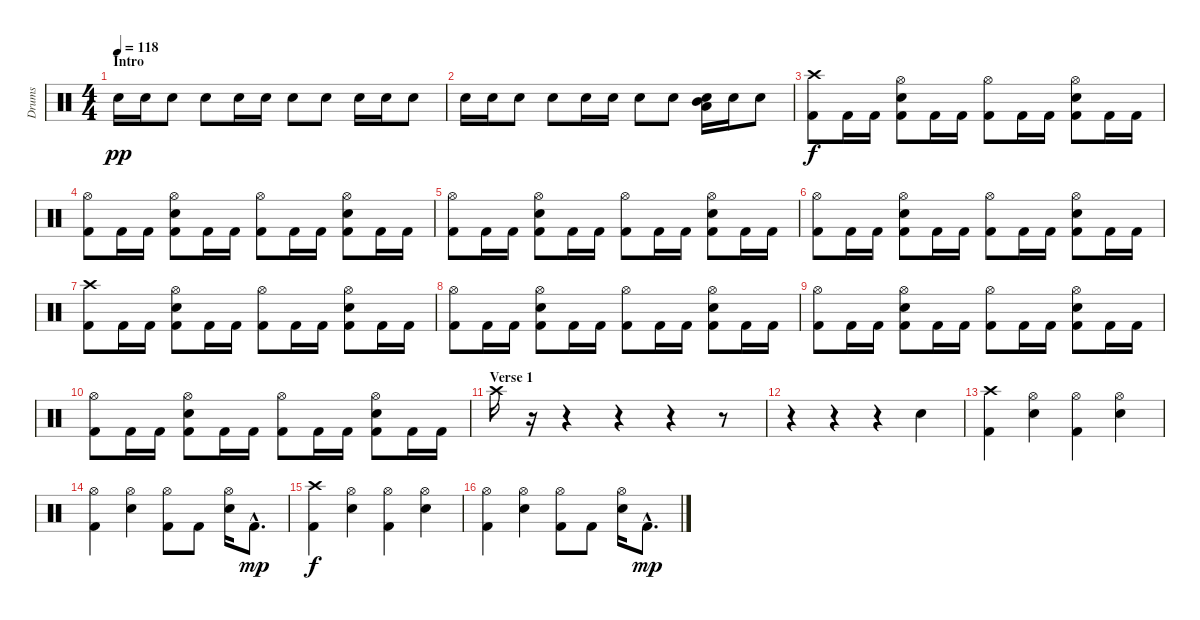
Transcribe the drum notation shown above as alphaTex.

\track ("Drums" "Drums") {instrument percussion}
\staff {score}
\articulation defaults
\ts (4 4)
\section ("" "Intro")
\tempo 118
\clef neutral
\ks c "Snare (hit) 2".16{dy pp} "Snare (hit) 2".16 "Snare (hit) 2".8 "Snare (hit) 2".8 "Snare (hit) 2".16 "Snare (hit) 2".16 "Snare (hit) 2".8 "Snare (hit) 2".8 "Snare (hit) 2".16 "Snare (hit) 2".16 "Snare (hit) 2".8
|
"Snare (hit) 2".16 "Snare (hit) 2".16 "Snare (hit) 2".8 "Snare (hit) 2".8 "Snare (hit) 2".16 "Snare (hit) 2".16 "Snare (hit) 2".8 "Snare (hit) 2".8 ("Mid Tom (hit)" "Low Tom (hit)" "Snare (hit) 2").16 "Snare (hit) 2".16 "Snare (hit) 2".8 |
("Crash high (hit)" "Kick (hit) 2").8{dy f} "Kick (hit) 2".16 "Kick (hit) 2".16 ("Hi-Hat (open)" "Snare (hit) 2" "Kick (hit) 2").8 "Kick (hit) 2".16 "Kick (hit) 2".16 ("Hi-Hat (open)" "Kick (hit) 2").8 "Kick (hit) 2".16 "Kick (hit) 2".16 ("Hi-Hat (open)" "Snare (hit) 2" "Kick (hit) 2").8 "Kick (hit) 2".16 "Kick (hit) 2".16 |
("Hi-Hat (open)" "Kick (hit) 2").8 "Kick (hit) 2".16 "Kick (hit) 2".16 ("Hi-Hat (open)" "Snare (hit) 2" "Kick (hit) 2").8 "Kick (hit) 2".16 "Kick (hit) 2".16 ("Hi-Hat (open)" "Kick (hit) 2").8 "Kick (hit) 2".16 "Kick (hit) 2".16 ("Hi-Hat (open)" "Snare (hit) 2" "Kick (hit) 2").8 "Kick (hit) 2".16 "Kick (hit) 2".16 |
("Hi-Hat (open)" "Kick (hit) 2").8 "Kick (hit) 2".16 "Kick (hit) 2".16 ("Hi-Hat (open)" "Snare (hit) 2" "Kick (hit) 2").8 "Kick (hit) 2".16 "Kick (hit) 2".16 ("Hi-Hat (open)" "Kick (hit) 2").8 "Kick (hit) 2".16 "Kick (hit) 2".16 ("Hi-Hat (open)" "Snare (hit) 2" "Kick (hit) 2").8 "Kick (hit) 2".16 "Kick (hit) 2".16 |
("Hi-Hat (open)" "Kick (hit) 2").8 "Kick (hit) 2".16 "Kick (hit) 2".16 ("Hi-Hat (open)" "Snare (hit) 2" "Kick (hit) 2").8 "Kick (hit) 2".16 "Kick (hit) 2".16 ("Hi-Hat (open)" "Kick (hit) 2").8 "Kick (hit) 2".16 "Kick (hit) 2".16 ("Hi-Hat (open)" "Snare (hit) 2" "Kick (hit) 2").8 "Kick (hit) 2".16 "Kick (hit) 2".16 |
("Crash high (hit)" "Kick (hit) 2").8 "Kick (hit) 2".16 "Kick (hit) 2".16 ("Hi-Hat (open)" "Snare (hit) 2" "Kick (hit) 2").8 "Kick (hit) 2".16 "Kick (hit) 2".16 ("Hi-Hat (open)" "Kick (hit) 2").8 "Kick (hit) 2".16 "Kick (hit) 2".16 ("Hi-Hat (open)" "Snare (hit) 2" "Kick (hit) 2").8 "Kick (hit) 2".16 "Kick (hit) 2".16 |
("Hi-Hat (open)" "Kick (hit) 2").8 "Kick (hit) 2".16 "Kick (hit) 2".16 ("Hi-Hat (open)" "Snare (hit) 2" "Kick (hit) 2").8 "Kick (hit) 2".16 "Kick (hit) 2".16 ("Hi-Hat (open)" "Kick (hit) 2").8 "Kick (hit) 2".16 "Kick (hit) 2".16 ("Hi-Hat (open)" "Snare (hit) 2" "Kick (hit) 2").8 "Kick (hit) 2".16 "Kick (hit) 2".16 |
("Hi-Hat (open)" "Kick (hit) 2").8 "Kick (hit) 2".16 "Kick (hit) 2".16 ("Hi-Hat (open)" "Snare (hit) 2" "Kick (hit) 2").8 "Kick (hit) 2".16 "Kick (hit) 2".16 ("Hi-Hat (open)" "Kick (hit) 2").8 "Kick (hit) 2".16 "Kick (hit) 2".16 ("Hi-Hat (open)" "Snare (hit) 2" "Kick (hit) 2").8 "Kick (hit) 2".16 "Kick (hit) 2".16 |
("Hi-Hat (open)" "Kick (hit) 2").8 "Kick (hit) 2".16 "Kick (hit) 2".16 ("Hi-Hat (open)" "Snare (hit) 2" "Kick (hit) 2").8 "Kick (hit) 2".16 "Kick (hit) 2".16 ("Hi-Hat (open)" "Kick (hit) 2").8 "Kick (hit) 2".16 "Kick (hit) 2".16 ("Hi-Hat (open)" "Snare (hit) 2" "Kick (hit) 2").8 "Kick (hit) 2".16 "Kick (hit) 2".16 |
\section ("" "Verse 1")
"Crash high (hit)".16 r.16 r.4 r.4 r.4 r.8 |
r.4 r.4 r.4 "Snare (hit) 2".4 |
("Crash high (hit)" "Kick (hit) 2").4 ("Hi-Hat (open)" "Snare (hit) 2").4 ("Hi-Hat (open)" "Kick (hit) 2").4 ("Hi-Hat (open)" "Snare (hit) 2").4 |
("Hi-Hat (open)" "Kick (hit) 2").4 ("Hi-Hat (open)" "Snare (hit) 2").4 ("Hi-Hat (open)" "Kick (hit) 2").8 "Kick (hit) 2".8 ("Hi-Hat (open)" "Snare (hit) 2").16 "Kick (hit) 2"{hac}.8{d dy mp} |
("Crash high (hit)" "Kick (hit) 2").4{dy f} ("Hi-Hat (open)" "Snare (hit) 2").4 ("Hi-Hat (open)" "Kick (hit) 2").4 ("Hi-Hat (open)" "Snare (hit) 2").4 |
("Hi-Hat (open)" "Kick (hit) 2").4 ("Hi-Hat (open)" "Snare (hit) 2").4 ("Hi-Hat (open)" "Kick (hit) 2").8 "Kick (hit) 2".8 ("Hi-Hat (open)" "Snare (hit) 2").16 "Kick (hit) 2"{hac}.8{d dy mp}
